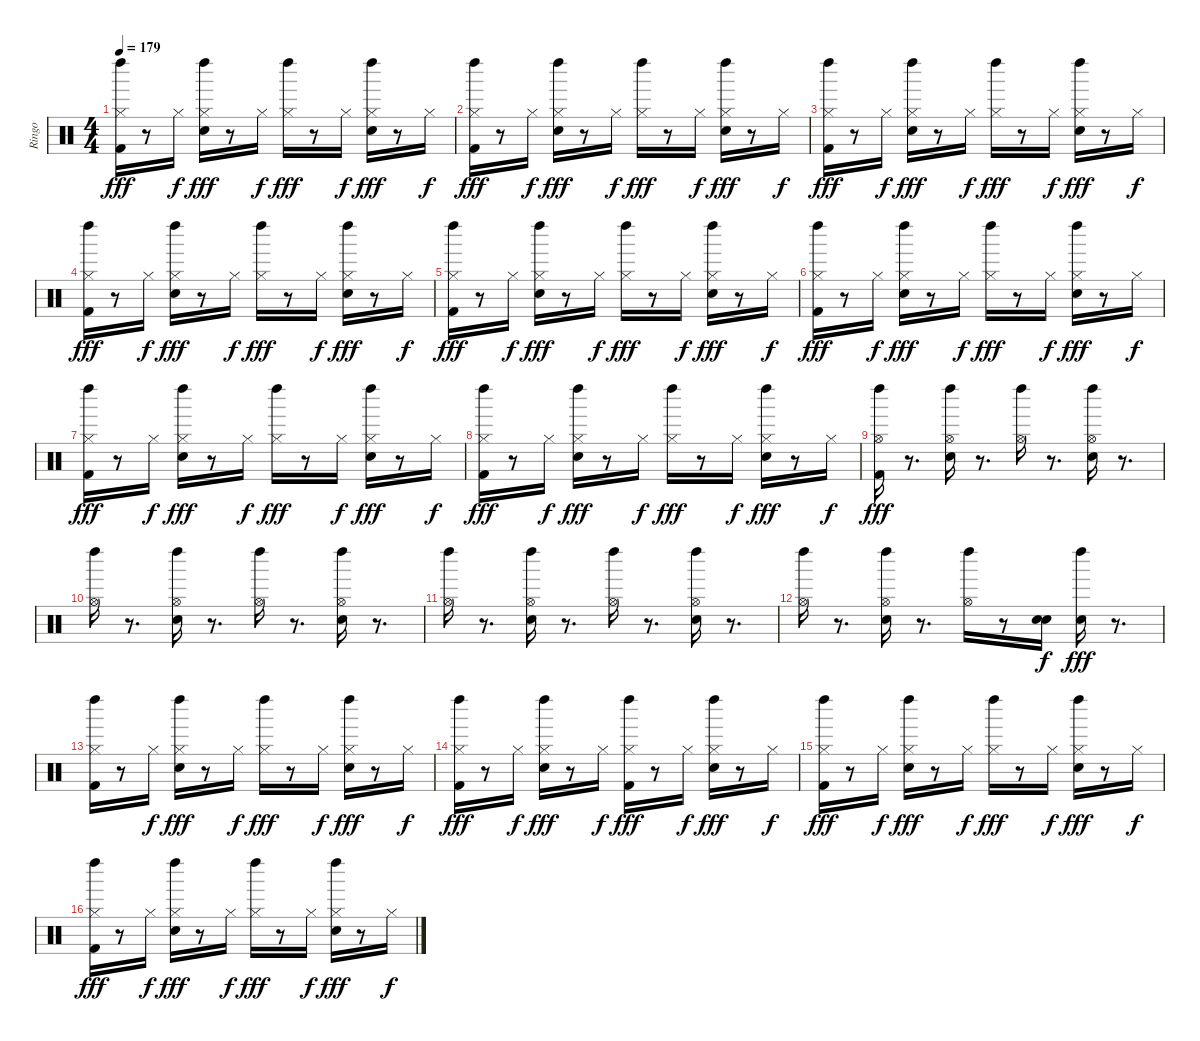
\track ("Ringo" "Ringo") {instrument percussion}
\staff {score}
\articulation defaults
\ts (4 4)
\tempo 179
\clef neutral
\ks c
("Hi-Hat (closed)" "Kick (hit) 2" "Left Maraca (hit)").16{dy fff} r.8 "Hi-Hat (closed)".16{dy f} ("Hi-Hat (closed)" "Snare (hit) 2" "Left Maraca (hit)").16{dy fff} r.8 "Hi-Hat (closed)".16{dy f} ("Hi-Hat (closed)" "Left Maraca (hit)").16{dy fff} r.8 "Hi-Hat (closed)".16{dy f} ("Hi-Hat (closed)" "Snare (hit) 2" "Left Maraca (hit)").16{dy fff} r.8 "Hi-Hat (closed)".16{dy f} |
("Hi-Hat (closed)" "Kick (hit) 2" "Left Maraca (hit)").16{dy fff} r.8 "Hi-Hat (closed)".16{dy f} ("Hi-Hat (closed)" "Snare (hit) 2" "Left Maraca (hit)").16{dy fff} r.8 "Hi-Hat (closed)".16{dy f} ("Hi-Hat (closed)" "Left Maraca (hit)").16{dy fff} r.8 "Hi-Hat (closed)".16{dy f} ("Hi-Hat (closed)" "Snare (hit) 2" "Left Maraca (hit)").16{dy fff} r.8 "Hi-Hat (closed)".16{dy f} |
("Hi-Hat (closed)" "Kick (hit) 2" "Left Maraca (hit)").16{dy fff} r.8 "Hi-Hat (closed)".16{dy f} ("Hi-Hat (closed)" "Snare (hit) 2" "Left Maraca (hit)").16{dy fff} r.8 "Hi-Hat (closed)".16{dy f} ("Hi-Hat (closed)" "Left Maraca (hit)").16{dy fff} r.8 "Hi-Hat (closed)".16{dy f} ("Hi-Hat (closed)" "Snare (hit) 2" "Left Maraca (hit)").16{dy fff} r.8 "Hi-Hat (closed)".16{dy f} |
("Hi-Hat (closed)" "Kick (hit) 2" "Left Maraca (hit)").16{dy fff} r.8 "Hi-Hat (closed)".16{dy f} ("Hi-Hat (closed)" "Snare (hit) 2" "Left Maraca (hit)").16{dy fff} r.8 "Hi-Hat (closed)".16{dy f} ("Hi-Hat (closed)" "Left Maraca (hit)").16{dy fff} r.8 "Hi-Hat (closed)".16{dy f} ("Hi-Hat (closed)" "Snare (hit) 2" "Left Maraca (hit)").16{dy fff} r.8 "Hi-Hat (closed)".16{dy f} |
("Hi-Hat (closed)" "Kick (hit) 2" "Left Maraca (hit)").16{dy fff} r.8 "Hi-Hat (closed)".16{dy f} ("Hi-Hat (closed)" "Snare (hit) 2" "Left Maraca (hit)").16{dy fff} r.8 "Hi-Hat (closed)".16{dy f} ("Hi-Hat (closed)" "Left Maraca (hit)").16{dy fff} r.8 "Hi-Hat (closed)".16{dy f} ("Hi-Hat (closed)" "Snare (hit) 2" "Left Maraca (hit)").16{dy fff} r.8 "Hi-Hat (closed)".16{dy f} |
("Hi-Hat (closed)" "Kick (hit) 2" "Left Maraca (hit)").16{dy fff} r.8 "Hi-Hat (closed)".16{dy f} ("Hi-Hat (closed)" "Snare (hit) 2" "Left Maraca (hit)").16{dy fff} r.8 "Hi-Hat (closed)".16{dy f} ("Hi-Hat (closed)" "Left Maraca (hit)").16{dy fff} r.8 "Hi-Hat (closed)".16{dy f} ("Hi-Hat (closed)" "Snare (hit) 2" "Left Maraca (hit)").16{dy fff} r.8 "Hi-Hat (closed)".16{dy f} |
("Hi-Hat (closed)" "Kick (hit) 2" "Left Maraca (hit)").16{dy fff} r.8 "Hi-Hat (closed)".16{dy f} ("Hi-Hat (closed)" "Snare (hit) 2" "Left Maraca (hit)").16{dy fff} r.8 "Hi-Hat (closed)".16{dy f} ("Hi-Hat (closed)" "Left Maraca (hit)").16{dy fff} r.8 "Hi-Hat (closed)".16{dy f} ("Hi-Hat (closed)" "Snare (hit) 2" "Left Maraca (hit)").16{dy fff} r.8 "Hi-Hat (closed)".16{dy f} |
("Hi-Hat (closed)" "Kick (hit) 2" "Left Maraca (hit)").16{dy fff} r.8 "Hi-Hat (closed)".16{dy f} ("Hi-Hat (closed)" "Snare (hit) 2" "Left Maraca (hit)").16{dy fff} r.8 "Hi-Hat (closed)".16{dy f} ("Hi-Hat (closed)" "Left Maraca (hit)").16{dy fff} r.8 "Hi-Hat (closed)".16{dy f} ("Hi-Hat (closed)" "Snare (hit) 2" "Left Maraca (hit)").16{dy fff} r.8 "Hi-Hat (closed)".16{dy f} |
("Kick (hit) 2" "Hi-Hat (open)" "Left Maraca (hit)").16{dy fff} r.8{d} ("Snare (hit) 2" "Hi-Hat (open)" "Left Maraca (hit)").16 r.8{d} ("Hi-Hat (open)" "Left Maraca (hit)").16 r.8{d} ("Snare (hit) 2" "Hi-Hat (open)" "Left Maraca (hit)").16 r.8{d} |
("Hi-Hat (open)" "Left Maraca (hit)").16 r.8{d} ("Snare (hit) 2" "Hi-Hat (open)" "Left Maraca (hit)").16 r.8{d} ("Hi-Hat (open)" "Left Maraca (hit)").16 r.8{d} ("Snare (hit) 2" "Hi-Hat (open)" "Left Maraca (hit)").16 r.8{d} |
("Hi-Hat (open)" "Left Maraca (hit)").16 r.8{d} ("Snare (hit) 2" "Hi-Hat (open)" "Left Maraca (hit)").16 r.8{d} ("Hi-Hat (open)" "Left Maraca (hit)").16 r.8{d} ("Snare (hit) 2" "Hi-Hat (open)" "Left Maraca (hit)").16 r.8{d} |
("Hi-Hat (open)" "Left Maraca (hit)").16 r.8{d} ("Snare (hit) 2" "Hi-Hat (open)" "Left Maraca (hit)").16 r.8{d} ("Hi-Hat (open)" "Left Maraca (hit)").16 r.8 ("Snare (hit) 2" "Snare (hit) 2").16{dy f} ("Snare (hit) 2" "Left Maraca (hit)").16{dy fff} r.8{d} |
("Hi-Hat (closed)" "Kick (hit) 2" "Left Maraca (hit)").16 r.8 "Hi-Hat (closed)".16{dy f} ("Hi-Hat (closed)" "Snare (hit) 2" "Left Maraca (hit)").16{dy fff} r.8 "Hi-Hat (closed)".16{dy f} ("Hi-Hat (closed)" "Left Maraca (hit)").16{dy fff} r.8 "Hi-Hat (closed)".16{dy f} ("Hi-Hat (closed)" "Snare (hit) 2" "Left Maraca (hit)").16{dy fff} r.8 "Hi-Hat (closed)".16{dy f} |
("Hi-Hat (closed)" "Kick (hit) 2" "Left Maraca (hit)").16{dy fff} r.8 "Hi-Hat (closed)".16{dy f} ("Hi-Hat (closed)" "Snare (hit) 2" "Left Maraca (hit)").16{dy fff} r.8 "Hi-Hat (closed)".16{dy f} ("Hi-Hat (closed)" "Kick (hit) 2" "Left Maraca (hit)").16{dy fff} r.8 "Hi-Hat (closed)".16{dy f} ("Hi-Hat (closed)" "Snare (hit) 2" "Left Maraca (hit)").16{dy fff} r.8 "Hi-Hat (closed)".16{dy f} |
("Hi-Hat (closed)" "Kick (hit) 2" "Left Maraca (hit)").16{dy fff} r.8 "Hi-Hat (closed)".16{dy f} ("Hi-Hat (closed)" "Snare (hit) 2" "Left Maraca (hit)").16{dy fff} r.8 "Hi-Hat (closed)".16{dy f} ("Hi-Hat (closed)" "Left Maraca (hit)").16{dy fff} r.8 "Hi-Hat (closed)".16{dy f} ("Hi-Hat (closed)" "Snare (hit) 2" "Left Maraca (hit)").16{dy fff} r.8 "Hi-Hat (closed)".16{dy f} |
("Hi-Hat (closed)" "Kick (hit) 2" "Left Maraca (hit)").16{dy fff} r.8 "Hi-Hat (closed)".16{dy f} ("Hi-Hat (closed)" "Snare (hit) 2" "Left Maraca (hit)").16{dy fff} r.8 "Hi-Hat (closed)".16{dy f} ("Hi-Hat (closed)" "Left Maraca (hit)").16{dy fff} r.8 "Hi-Hat (closed)".16{dy f} ("Hi-Hat (closed)" "Snare (hit) 2" "Left Maraca (hit)").16{dy fff} r.8 "Hi-Hat (closed)".16{dy f}
